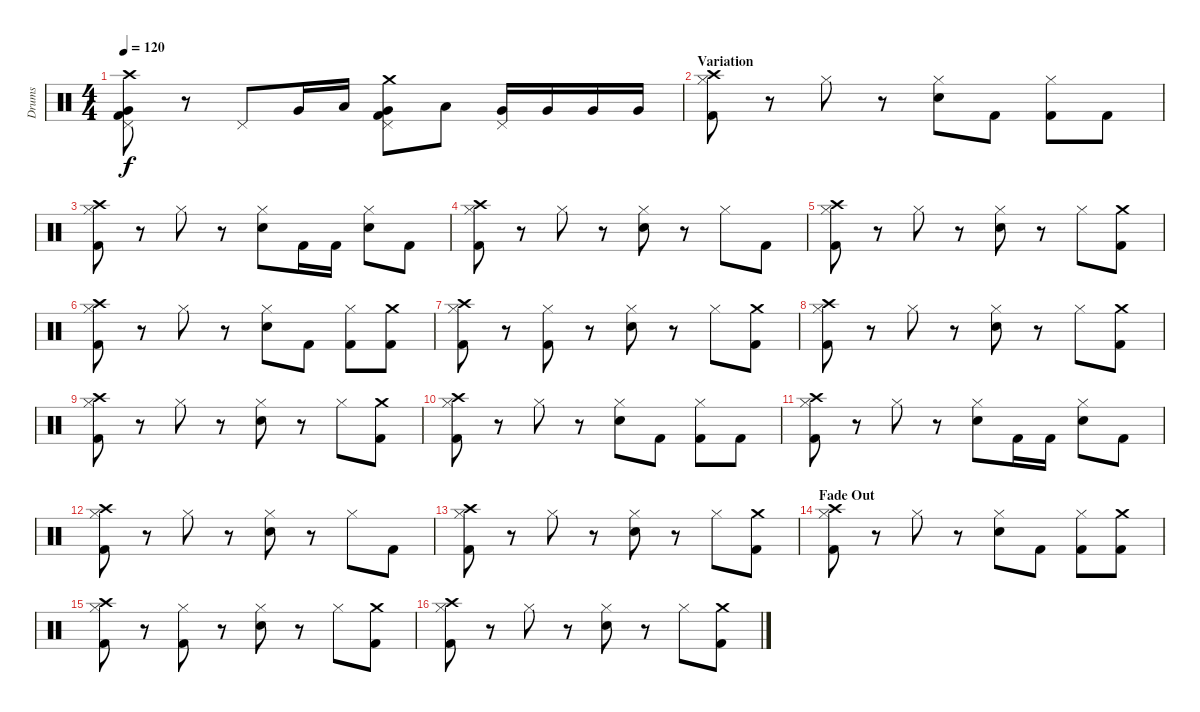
\track ("Drums" "Drums") {instrument percussion}
\staff {score}
\articulation defaults
\ts (4 4)
\tempo 120
\clef neutral
\ks c
("Pedal Hi-Hat (hit)" "Very Low Tom (hit)" "Kick (hit) 2" "Crash high (hit)").8{dy f} r.8 "Pedal Hi-Hat (hit)".8 "Very Low Tom (hit)".16 "Low Tom (hit)".16 ("Pedal Hi-Hat (hit)" "Very Low Tom (hit)" "Kick (hit) 2" "Crash medium (hit)").8 "Low Tom (hit)".8 ("Pedal Hi-Hat (hit)" "Very Low Tom (hit)").16 "Very Low Tom (hit)".16 "Very Low Tom (hit)".16 "Very Low Tom (hit)".16 |
\section ("" "Variation")
("Hi-Hat (closed)" "Kick (hit) 2" "Crash high (hit)").8 r.8 "Hi-Hat (closed)".8 r.8 ("Hi-Hat (closed)" "Snare (hit) 2").8 "Kick (hit) 2".8 ("Hi-Hat (closed)" "Kick (hit) 2").8 "Kick (hit) 2".8 |
("Hi-Hat (closed)" "Kick (hit) 2" "Crash high (hit)").8 r.8 "Hi-Hat (closed)".8 r.8 ("Hi-Hat (closed)" "Snare (hit) 2").8 "Kick (hit) 2".16 "Kick (hit) 2".16 ("Hi-Hat (closed)" "Snare (hit) 2").8 "Kick (hit) 2".8 |
("Hi-Hat (closed)" "Kick (hit) 2" "Crash high (hit)").8 r.8 "Hi-Hat (closed)".8 r.8 ("Hi-Hat (closed)" "Snare (hit) 2").8 r.8 "Hi-Hat (closed)".8 "Kick (hit) 2".8 |
("Hi-Hat (closed)" "Kick (hit) 2" "Crash high (hit)").8 r.8 "Hi-Hat (closed)".8 r.8 ("Hi-Hat (closed)" "Snare (hit) 2").8 r.8 "Hi-Hat (closed)".8 ("Kick (hit) 2" "Crash medium (hit)").8 |
("Hi-Hat (closed)" "Kick (hit) 2" "Crash high (hit)").8 r.8 "Hi-Hat (closed)".8 r.8 ("Hi-Hat (closed)" "Snare (hit) 2").8 "Kick (hit) 2".8 ("Hi-Hat (closed)" "Kick (hit) 2").8 ("Kick (hit) 2" "Crash medium (hit)").8 |
("Hi-Hat (closed)" "Kick (hit) 2" "Crash high (hit)").8 r.8 ("Hi-Hat (closed)" "Kick (hit) 2").8 r.8 ("Hi-Hat (closed)" "Snare (hit) 2").8 r.8 "Hi-Hat (closed)".8 ("Kick (hit) 2" "Crash medium (hit)").8 |
("Hi-Hat (closed)" "Kick (hit) 2" "Crash high (hit)").8 r.8 "Hi-Hat (closed)".8 r.8 ("Hi-Hat (closed)" "Snare (hit) 2").8 r.8 "Hi-Hat (closed)".8 ("Kick (hit) 2" "Crash medium (hit)").8 |
("Hi-Hat (closed)" "Kick (hit) 2" "Crash high (hit)").8 r.8 "Hi-Hat (closed)".8 r.8 ("Hi-Hat (closed)" "Snare (hit) 2").8 r.8 "Hi-Hat (closed)".8 ("Kick (hit) 2" "Crash medium (hit)").8 |
("Hi-Hat (closed)" "Kick (hit) 2" "Crash high (hit)").8 r.8 "Hi-Hat (closed)".8 r.8 ("Hi-Hat (closed)" "Snare (hit) 2").8 "Kick (hit) 2".8 ("Hi-Hat (closed)" "Kick (hit) 2").8 "Kick (hit) 2".8 |
("Hi-Hat (closed)" "Kick (hit) 2" "Crash high (hit)").8 r.8 "Hi-Hat (closed)".8 r.8 ("Hi-Hat (closed)" "Snare (hit) 2").8 "Kick (hit) 2".16 "Kick (hit) 2".16 ("Hi-Hat (closed)" "Snare (hit) 2").8 "Kick (hit) 2".8 |
("Hi-Hat (closed)" "Kick (hit) 2" "Crash high (hit)").8 r.8 "Hi-Hat (closed)".8 r.8 ("Hi-Hat (closed)" "Snare (hit) 2").8 r.8 "Hi-Hat (closed)".8 "Kick (hit) 2".8 |
("Hi-Hat (closed)" "Kick (hit) 2" "Crash high (hit)").8 r.8 "Hi-Hat (closed)".8 r.8 ("Hi-Hat (closed)" "Snare (hit) 2").8 r.8 "Hi-Hat (closed)".8 ("Kick (hit) 2" "Crash medium (hit)").8 |
\section ("" "Fade Out")
("Hi-Hat (closed)" "Kick (hit) 2" "Crash high (hit)").8 r.8 "Hi-Hat (closed)".8 r.8 ("Hi-Hat (closed)" "Snare (hit) 2").8 "Kick (hit) 2".8 ("Hi-Hat (closed)" "Kick (hit) 2").8 ("Kick (hit) 2" "Crash medium (hit)").8 |
("Hi-Hat (closed)" "Kick (hit) 2" "Crash high (hit)").8 r.8 ("Hi-Hat (closed)" "Kick (hit) 2").8 r.8 ("Hi-Hat (closed)" "Snare (hit) 2").8 r.8 "Hi-Hat (closed)".8 ("Kick (hit) 2" "Crash medium (hit)").8 |
("Hi-Hat (closed)" "Kick (hit) 2" "Crash high (hit)").8 r.8 "Hi-Hat (closed)".8 r.8 ("Hi-Hat (closed)" "Snare (hit) 2").8 r.8 "Hi-Hat (closed)".8 ("Kick (hit) 2" "Crash medium (hit)").8
